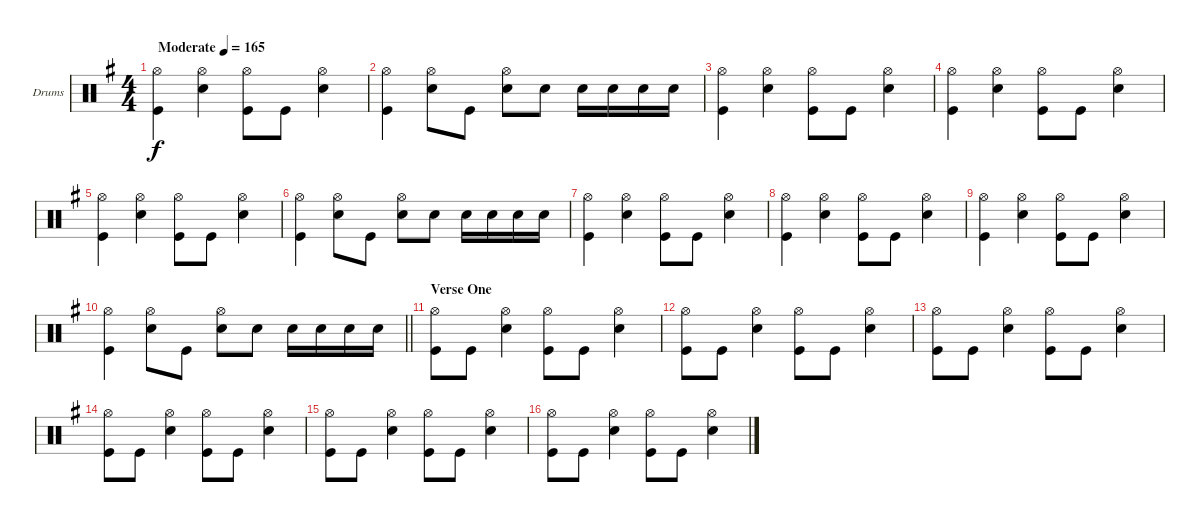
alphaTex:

\bracketExtendMode groupsimilarinstruments
\firstSystemTrackNameOrientation horizontal
\otherSystemsTrackNameOrientation horizontal
\track ("Drumkit" "Drums") {instrument percussion}
\staff {score}
\articulation defaults
\ts (4 4)
\beaming (8 2 2 2 2)
\tempo (165 "Moderate")
\clef neutral
\ks eminor
("Hi-Hat (open)" "Kick (hit)").4{dy f} ("Hi-Hat (open)" "Snare (hit) 2").4 ("Hi-Hat (open)" "Kick (hit)").8 "Kick (hit)".8 ("Hi-Hat (open)" "Snare (hit) 2").4 |
("Hi-Hat (open)" "Kick (hit)").4 ("Hi-Hat (open)" "Snare (hit) 2").8 "Kick (hit)".8 ("Hi-Hat (open)" "Snare (hit) 2").8 "Snare (hit) 2".8 "Snare (hit) 2".16 "Snare (hit) 2".16 "Snare (hit) 2".16 "Snare (hit) 2".16 |
("Hi-Hat (open)" "Kick (hit)").4 ("Hi-Hat (open)" "Snare (hit) 2").4 ("Hi-Hat (open)" "Kick (hit)").8 "Kick (hit)".8 ("Hi-Hat (open)" "Snare (hit) 2").4 |
("Hi-Hat (open)" "Kick (hit)").4 ("Hi-Hat (open)" "Snare (hit) 2").4 ("Hi-Hat (open)" "Kick (hit)").8 "Kick (hit)".8 ("Hi-Hat (open)" "Snare (hit) 2").4 |
("Hi-Hat (open)" "Kick (hit)").4 ("Hi-Hat (open)" "Snare (hit) 2").4 ("Hi-Hat (open)" "Kick (hit)").8 "Kick (hit)".8 ("Hi-Hat (open)" "Snare (hit) 2").4 |
("Hi-Hat (open)" "Kick (hit)").4 ("Hi-Hat (open)" "Snare (hit) 2").8 "Kick (hit)".8 ("Hi-Hat (open)" "Snare (hit) 2").8 "Snare (hit) 2".8 "Snare (hit) 2".16 "Snare (hit) 2".16 "Snare (hit) 2".16 "Snare (hit) 2".16 |
("Hi-Hat (open)" "Kick (hit)").4 ("Hi-Hat (open)" "Snare (hit) 2").4 ("Hi-Hat (open)" "Kick (hit)").8 "Kick (hit)".8 ("Hi-Hat (open)" "Snare (hit) 2").4 |
("Hi-Hat (open)" "Kick (hit)").4 ("Hi-Hat (open)" "Snare (hit) 2").4 ("Hi-Hat (open)" "Kick (hit)").8 "Kick (hit)".8 ("Hi-Hat (open)" "Snare (hit) 2").4 |
("Hi-Hat (open)" "Kick (hit)").4 ("Hi-Hat (open)" "Snare (hit) 2").4 ("Hi-Hat (open)" "Kick (hit)").8 "Kick (hit)".8 ("Hi-Hat (open)" "Snare (hit) 2").4 |
\barLineRight lightlight
("Hi-Hat (open)" "Kick (hit)").4 ("Hi-Hat (open)" "Snare (hit) 2").8 "Kick (hit)".8 ("Hi-Hat (open)" "Snare (hit) 2").8 "Snare (hit) 2".8 "Snare (hit) 2".16 "Snare (hit) 2".16 "Snare (hit) 2".16 "Snare (hit) 2".16 |
\section ("" "Verse One")
("Hi-Hat (open)" "Kick (hit)").8 "Kick (hit)".8 ("Hi-Hat (open)" "Snare (hit) 2").4 ("Hi-Hat (open)" "Kick (hit)").8 "Kick (hit)".8 ("Hi-Hat (open)" "Snare (hit) 2").4 |
("Hi-Hat (open)" "Kick (hit)").8 "Kick (hit)".8 ("Hi-Hat (open)" "Snare (hit) 2").4 ("Hi-Hat (open)" "Kick (hit)").8 "Kick (hit)".8 ("Hi-Hat (open)" "Snare (hit) 2").4 |
("Hi-Hat (open)" "Kick (hit)").8 "Kick (hit)".8 ("Hi-Hat (open)" "Snare (hit) 2").4 ("Hi-Hat (open)" "Kick (hit)").8 "Kick (hit)".8 ("Hi-Hat (open)" "Snare (hit) 2").4 |
("Hi-Hat (open)" "Kick (hit)").8 "Kick (hit)".8 ("Hi-Hat (open)" "Snare (hit) 2").4 ("Hi-Hat (open)" "Kick (hit)").8 "Kick (hit)".8 ("Hi-Hat (open)" "Snare (hit) 2").4 |
("Hi-Hat (open)" "Kick (hit)").8 "Kick (hit)".8 ("Hi-Hat (open)" "Snare (hit) 2").4 ("Hi-Hat (open)" "Kick (hit)").8 "Kick (hit)".8 ("Hi-Hat (open)" "Snare (hit) 2").4 |
("Hi-Hat (open)" "Kick (hit)").8 "Kick (hit)".8 ("Hi-Hat (open)" "Snare (hit) 2").4 ("Hi-Hat (open)" "Kick (hit)").8 "Kick (hit)".8 ("Hi-Hat (open)" "Snare (hit) 2").4
